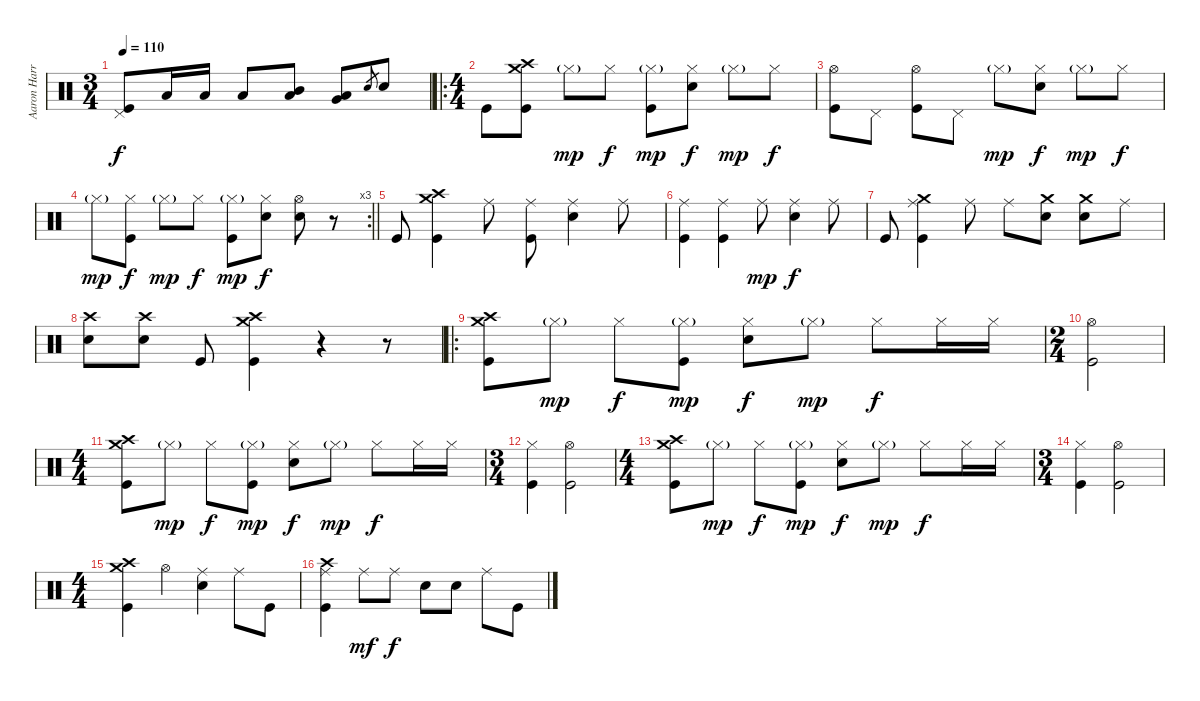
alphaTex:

\track ("Aaron Harris" "Aaron Harr") {instrument percussion}
\staff {score}
\articulation defaults
\ts (3 4)
\tempo 110
\clef neutral
\ks c
("Pedal Hi-Hat (hit)" "Kick (hit)").8{dy f} "Low Tom (hit)".16 "Low Tom (hit)".16 "Low Tom (hit)".8 ("Mid Tom (hit)" "Low Tom (hit)").8 ("Low Tom (hit)" "Very Low Tom (hit)").8 "Electric Snare (hit)".8{gr} "Electric Snare (hit)".8 |
\ro
\ts (4 4)
"Kick (hit)".8 ("Crash medium (hit)" "Crash high (hit)" "Kick (hit)").8 "Hi-Hat (closed)"{g}.8{dy mp} "Hi-Hat (closed)".8{dy f} ("Hi-Hat (closed)"{g} "Kick (hit)").8{dy mp} ("Hi-Hat (closed)" "Electric Snare (hit)").8{dy f} "Hi-Hat (closed)"{g}.8{dy mp} "Hi-Hat (closed)".8{dy f} |
("Hi-Hat (open)" "Kick (hit)").8 "Pedal Hi-Hat (hit)".8 ("Hi-Hat (open)" "Kick (hit)").8 "Pedal Hi-Hat (hit)".8 "Hi-Hat (closed)"{g}.8{dy mp} ("Hi-Hat (closed)" "Electric Snare (hit)").8{dy f} "Hi-Hat (closed)"{g}.8{dy mp} "Hi-Hat (closed)".8{dy f} |
\rc 3
\barLineRight lightlight "Hi-Hat (closed)"{g}.8{dy mp}
("Hi-Hat (closed)" "Kick (hit)").8{dy f} "Hi-Hat (closed)"{g}.8{dy mp} "Hi-Hat (closed)".8{dy f} ("Hi-Hat (closed)"{g} "Kick (hit)").8{dy mp} ("Hi-Hat (closed)" "Electric Snare (hit)").8{dy f} ("Hi-Hat (open)" "Electric Snare (hit)").8 r.8 |
"Kick (hit)".8 ("Crash medium (hit)" "Crash high (hit)" "Kick (hit)").4 "Ride (middle)".8 ("Ride (middle)" "Kick (hit)").8 ("Ride (middle)" "Electric Snare (hit)").4 "Ride (middle)".8 |
("Ride (middle)" "Kick (hit)").4 ("Ride (middle)" "Kick (hit)").4 "Ride (middle)".8{dy mp} ("Ride (middle)" "Electric Snare (hit)").4{dy f} "Ride (middle)".8 |
"Kick (hit)".8 ("Crash medium (hit)" "Ride (middle)" "Kick (hit)").4 "Ride (middle)".8 "Ride (middle)".8 ("Crash medium (hit)" "Electric Snare (hit)").8 ("Crash medium (hit)" "Electric Snare (hit)").8 "Ride (middle)".8 |
("Crash high (hit)" "Electric Snare (hit)").8 ("Crash high (hit)" "Electric Snare (hit)").8 "Kick (hit)".8 ("Crash medium (hit)" "Crash high (hit)" "Kick (hit)").4 r.4 r.8 |
\ro
("Crash medium (hit)" "Crash high (hit)" "Kick (hit)").8 "Hi-Hat (closed)"{g}.8{dy mp} "Hi-Hat (closed)".8{dy f} ("Hi-Hat (closed)"{g} "Kick (hit)").8{dy mp} ("Hi-Hat (closed)" "Electric Snare (hit)").8{dy f} "Hi-Hat (closed)"{g}.8{dy mp} "Hi-Hat (closed)".8{dy f} "Hi-Hat (closed)".16 "Hi-Hat (closed)".16 |
\ts (2 4)
("Hi-Hat (open)" "Kick (hit)").2 |
\ts (4 4)
("Crash medium (hit)" "Crash high (hit)" "Kick (hit)").8 "Hi-Hat (closed)"{g}.8{dy mp} "Hi-Hat (closed)".8{dy f} ("Hi-Hat (closed)"{g} "Kick (hit)").8{dy mp} ("Hi-Hat (closed)" "Electric Snare (hit)").8{dy f} "Hi-Hat (closed)"{g}.8{dy mp} "Hi-Hat (closed)".8{dy f} "Hi-Hat (closed)".16 "Hi-Hat (closed)".16 |
\ts (3 4)
("Hi-Hat (closed)" "Kick (hit)").4 ("Hi-Hat (open)" "Kick (hit)").2 |
\ts (4 4)
("Crash medium (hit)" "Crash high (hit)" "Kick (hit)").8 "Hi-Hat (closed)"{g}.8{dy mp} "Hi-Hat (closed)".8{dy f} ("Hi-Hat (closed)"{g} "Kick (hit)").8{dy mp} ("Hi-Hat (closed)" "Electric Snare (hit)").8{dy f} "Hi-Hat (closed)"{g}.8{dy mp} "Hi-Hat (closed)".8{dy f} "Hi-Hat (closed)".16 "Hi-Hat (closed)".16 |
\ts (3 4)
("Hi-Hat (closed)" "Kick (hit)").4 ("Hi-Hat (open)" "Kick (hit)").2 |
\ts (4 4)
("Crash medium (hit)" "Crash high (hit)" "Kick (hit)").4 "Hi-Hat (open)".4 ("Ride (middle)" "Electric Snare (hit)").4 "Ride (middle)".8 "Kick (hit)".8 |
("Crash high (hit)" "Ride (middle)" "Kick (hit)").4 "Ride (middle)".8{dy mf} "Ride (middle)".8{dy f} "Electric Snare (hit)".8 "Electric Snare (hit)".8 "Ride (middle)".8 "Kick (hit)".8
